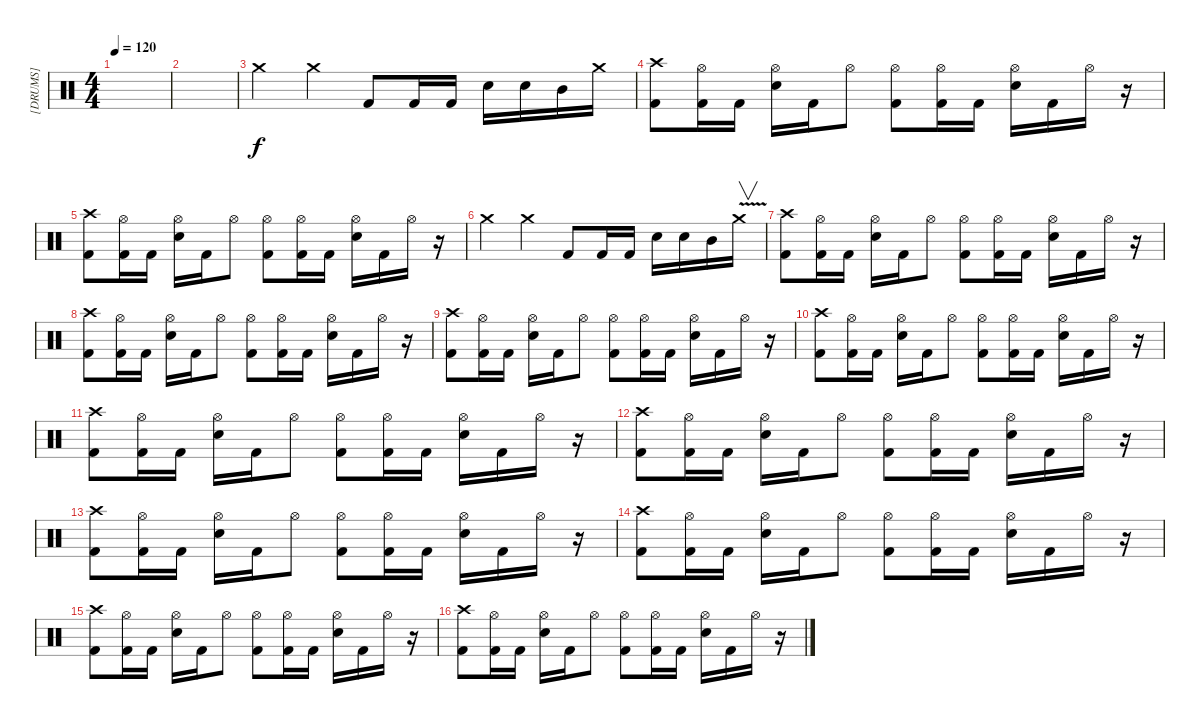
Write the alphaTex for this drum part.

\track ("[DRUMS]" "[DRUMS]") {instrument percussion}
\staff {score}
\articulation defaults
\ts (4 4)
\tempo 120
\clef neutral
\ks c
|
|
"Crash medium (hit)".4 "Crash medium (hit)".4 "Kick (hit) 2".8 "Kick (hit) 2".16 "Kick (hit) 2".16 "Electric Snare (hit)".16 "Electric Snare (hit)".16 "Mid Tom (hit)".16 "Crash medium (hit)".16 |
("Crash high (hit)" "Kick (hit) 2").8 ("Hi-Hat (open)" "Kick (hit) 2").16 "Kick (hit) 2".16 ("Hi-Hat (open)" "Electric Snare (hit)").16 "Kick (hit) 2".16 "Hi-Hat (open)".8 ("Hi-Hat (open)" "Kick (hit) 2").8 ("Hi-Hat (open)" "Kick (hit) 2").16 "Kick (hit) 2".16 ("Hi-Hat (open)" "Electric Snare (hit)").16 "Kick (hit) 2".16 "Hi-Hat (open)".16 r.16 |
("Crash high (hit)" "Kick (hit) 2").8 ("Hi-Hat (open)" "Kick (hit) 2").16 "Kick (hit) 2".16 ("Hi-Hat (open)" "Electric Snare (hit)").16 "Kick (hit) 2".16 "Hi-Hat (open)".8 ("Hi-Hat (open)" "Kick (hit) 2").8 ("Hi-Hat (open)" "Kick (hit) 2").16 "Kick (hit) 2".16 ("Hi-Hat (open)" "Electric Snare (hit)").16 "Kick (hit) 2".16 "Hi-Hat (open)".16 r.16 |
"Crash medium (hit)".4 "Crash medium (hit)".4 "Kick (hit) 2".8 "Kick (hit) 2".16 "Kick (hit) 2".16 "Electric Snare (hit)".16 "Electric Snare (hit)".16 "Mid Tom (hit)".16 "Crash medium (hit)"{v}.16{v} |
("Crash high (hit)" "Kick (hit) 2").8 ("Hi-Hat (open)" "Kick (hit) 2").16 "Kick (hit) 2".16 ("Hi-Hat (open)" "Electric Snare (hit)").16 "Kick (hit) 2".16 "Hi-Hat (open)".8 ("Hi-Hat (open)" "Kick (hit) 2").8 ("Hi-Hat (open)" "Kick (hit) 2").16 "Kick (hit) 2".16 ("Hi-Hat (open)" "Electric Snare (hit)").16 "Kick (hit) 2".16 "Hi-Hat (open)".16 r.16 |
("Crash high (hit)" "Kick (hit) 2").8 ("Hi-Hat (open)" "Kick (hit) 2").16 "Kick (hit) 2".16 ("Hi-Hat (open)" "Electric Snare (hit)").16 "Kick (hit) 2".16 "Hi-Hat (open)".8 ("Hi-Hat (open)" "Kick (hit) 2").8 ("Hi-Hat (open)" "Kick (hit) 2").16 "Kick (hit) 2".16 ("Hi-Hat (open)" "Electric Snare (hit)").16 "Kick (hit) 2".16 "Hi-Hat (open)".16 r.16 |
("Crash high (hit)" "Kick (hit) 2").8 ("Hi-Hat (open)" "Kick (hit) 2").16 "Kick (hit) 2".16 ("Hi-Hat (open)" "Electric Snare (hit)").16 "Kick (hit) 2".16 "Hi-Hat (open)".8 ("Hi-Hat (open)" "Kick (hit) 2").8 ("Hi-Hat (open)" "Kick (hit) 2").16 "Kick (hit) 2".16 ("Hi-Hat (open)" "Electric Snare (hit)").16 "Kick (hit) 2".16 "Hi-Hat (open)".16 r.16 |
("Crash high (hit)" "Kick (hit) 2").8 ("Hi-Hat (open)" "Kick (hit) 2").16 "Kick (hit) 2".16 ("Hi-Hat (open)" "Electric Snare (hit)").16 "Kick (hit) 2".16 "Hi-Hat (open)".8 ("Hi-Hat (open)" "Kick (hit) 2").8 ("Hi-Hat (open)" "Kick (hit) 2").16 "Kick (hit) 2".16 ("Hi-Hat (open)" "Electric Snare (hit)").16 "Kick (hit) 2".16 "Hi-Hat (open)".16 r.16 |
("Crash high (hit)" "Kick (hit) 2").8 ("Hi-Hat (open)" "Kick (hit) 2").16 "Kick (hit) 2".16 ("Hi-Hat (open)" "Electric Snare (hit)").16 "Kick (hit) 2".16 "Hi-Hat (open)".8 ("Hi-Hat (open)" "Kick (hit) 2").8 ("Hi-Hat (open)" "Kick (hit) 2").16 "Kick (hit) 2".16 ("Hi-Hat (open)" "Electric Snare (hit)").16 "Kick (hit) 2".16 "Hi-Hat (open)".16 r.16 |
("Crash high (hit)" "Kick (hit) 2").8 ("Hi-Hat (open)" "Kick (hit) 2").16 "Kick (hit) 2".16 ("Hi-Hat (open)" "Electric Snare (hit)").16 "Kick (hit) 2".16 "Hi-Hat (open)".8 ("Hi-Hat (open)" "Kick (hit) 2").8 ("Hi-Hat (open)" "Kick (hit) 2").16 "Kick (hit) 2".16 ("Hi-Hat (open)" "Electric Snare (hit)").16 "Kick (hit) 2".16 "Hi-Hat (open)".16 r.16 |
("Crash high (hit)" "Kick (hit) 2").8 ("Hi-Hat (open)" "Kick (hit) 2").16 "Kick (hit) 2".16 ("Hi-Hat (open)" "Electric Snare (hit)").16 "Kick (hit) 2".16 "Hi-Hat (open)".8 ("Hi-Hat (open)" "Kick (hit) 2").8 ("Hi-Hat (open)" "Kick (hit) 2").16 "Kick (hit) 2".16 ("Hi-Hat (open)" "Electric Snare (hit)").16 "Kick (hit) 2".16 "Hi-Hat (open)".16 r.16 |
("Crash high (hit)" "Kick (hit) 2").8 ("Hi-Hat (open)" "Kick (hit) 2").16 "Kick (hit) 2".16 ("Hi-Hat (open)" "Electric Snare (hit)").16 "Kick (hit) 2".16 "Hi-Hat (open)".8 ("Hi-Hat (open)" "Kick (hit) 2").8 ("Hi-Hat (open)" "Kick (hit) 2").16 "Kick (hit) 2".16 ("Hi-Hat (open)" "Electric Snare (hit)").16 "Kick (hit) 2".16 "Hi-Hat (open)".16 r.16 |
("Crash high (hit)" "Kick (hit) 2").8 ("Hi-Hat (open)" "Kick (hit) 2").16 "Kick (hit) 2".16 ("Hi-Hat (open)" "Electric Snare (hit)").16 "Kick (hit) 2".16 "Hi-Hat (open)".8 ("Hi-Hat (open)" "Kick (hit) 2").8 ("Hi-Hat (open)" "Kick (hit) 2").16 "Kick (hit) 2".16 ("Hi-Hat (open)" "Electric Snare (hit)").16 "Kick (hit) 2".16 "Hi-Hat (open)".16 r.16 |
("Crash high (hit)" "Kick (hit) 2").8 ("Hi-Hat (open)" "Kick (hit) 2").16 "Kick (hit) 2".16 ("Hi-Hat (open)" "Electric Snare (hit)").16 "Kick (hit) 2".16 "Hi-Hat (open)".8 ("Hi-Hat (open)" "Kick (hit) 2").8 ("Hi-Hat (open)" "Kick (hit) 2").16 "Kick (hit) 2".16 ("Hi-Hat (open)" "Electric Snare (hit)").16 "Kick (hit) 2".16 "Hi-Hat (open)".16 r.16
